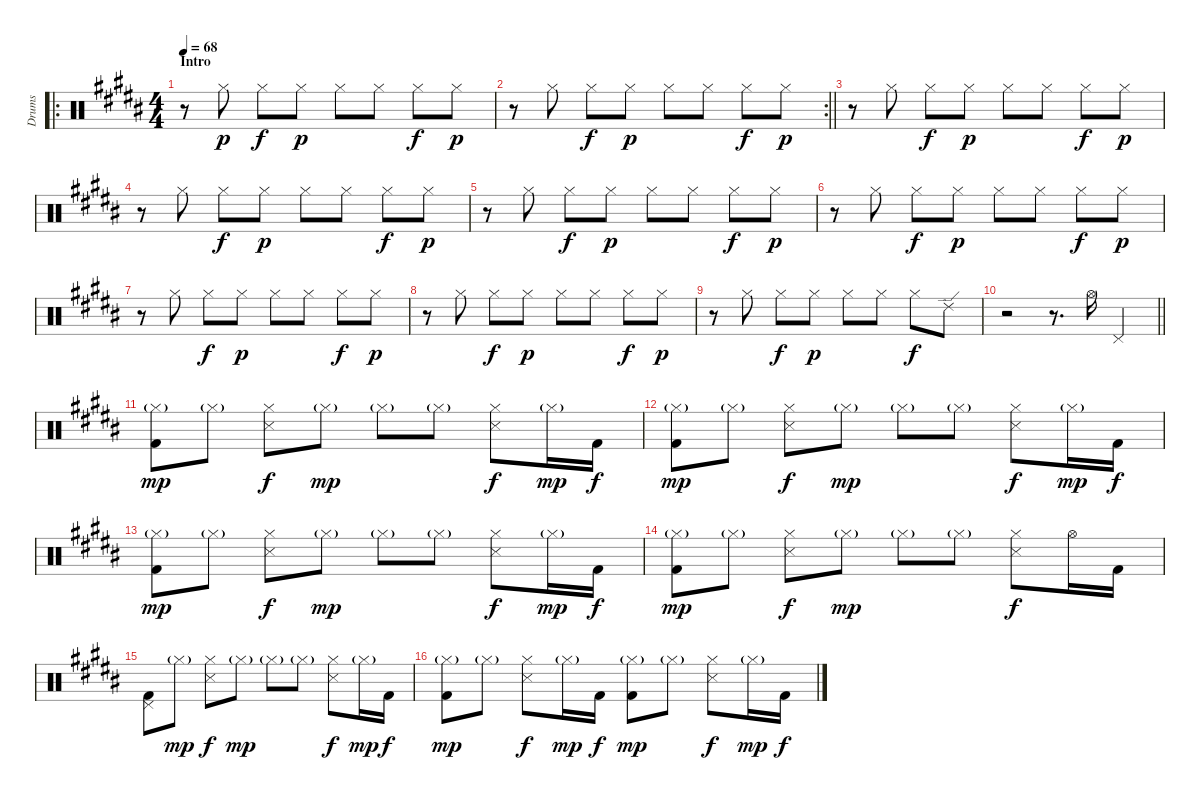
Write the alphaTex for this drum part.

\track ("Drums" "Drums") {instrument percussion}
\staff {score}
\articulation defaults
\ro
\ts (4 4)
\section ("" "Intro")
\tempo 68
\clef neutral
\ks g#minor
r.8{dy p} "Hi-Hat (closed)".8 "Hi-Hat (closed)".8{dy f} "Hi-Hat (closed)".8{dy p} "Hi-Hat (closed)".8 "Hi-Hat (closed)".8 "Hi-Hat (closed)".8{dy f} "Hi-Hat (closed)".8{dy p} |
\rc 2
\barLineRight lightlight
r.8 "Hi-Hat (closed)".8 "Hi-Hat (closed)".8{dy f} "Hi-Hat (closed)".8{dy p} "Hi-Hat (closed)".8 "Hi-Hat (closed)".8 "Hi-Hat (closed)".8{dy f} "Hi-Hat (closed)".8{dy p} |
\section ("" "")
r.8 "Hi-Hat (closed)".8 "Hi-Hat (closed)".8{dy f} "Hi-Hat (closed)".8{dy p} "Hi-Hat (closed)".8 "Hi-Hat (closed)".8 "Hi-Hat (closed)".8{dy f} "Hi-Hat (closed)".8{dy p} |
r.8 "Hi-Hat (closed)".8 "Hi-Hat (closed)".8{dy f} "Hi-Hat (closed)".8{dy p} "Hi-Hat (closed)".8 "Hi-Hat (closed)".8 "Hi-Hat (closed)".8{dy f} "Hi-Hat (closed)".8{dy p} |
r.8 "Hi-Hat (closed)".8 "Hi-Hat (closed)".8{dy f} "Hi-Hat (closed)".8{dy p} "Hi-Hat (closed)".8 "Hi-Hat (closed)".8 "Hi-Hat (closed)".8{dy f} "Hi-Hat (closed)".8{dy p} |
r.8 "Hi-Hat (closed)".8 "Hi-Hat (closed)".8{dy f} "Hi-Hat (closed)".8{dy p} "Hi-Hat (closed)".8 "Hi-Hat (closed)".8 "Hi-Hat (closed)".8{dy f} "Hi-Hat (closed)".8{dy p} |
r.8 "Hi-Hat (closed)".8 "Hi-Hat (closed)".8{dy f} "Hi-Hat (closed)".8{dy p} "Hi-Hat (closed)".8 "Hi-Hat (closed)".8 "Hi-Hat (closed)".8{dy f} "Hi-Hat (closed)".8{dy p} |
r.8 "Hi-Hat (closed)".8 "Hi-Hat (closed)".8{dy f} "Hi-Hat (closed)".8{dy p} "Hi-Hat (closed)".8 "Hi-Hat (closed)".8 "Hi-Hat (closed)".8{dy f} "Hi-Hat (closed)".8{dy p} |
r.8 "Hi-Hat (closed)".8 "Hi-Hat (closed)".8{dy f} "Hi-Hat (closed)".8{dy p} "Hi-Hat (closed)".8 "Hi-Hat (closed)".8 "Hi-Hat (closed)".8{dy f} "Ride (edge) 2".8 |
\barLineRight lightlight
r.2 r.8{d} "Hi-Hat (open)".16 "Pedal Hi-Hat (hit)".4 |
\section ("" "")
("Hi-Hat (closed)"{g} "Kick (hit) 2").8{dy mp} "Hi-Hat (closed)"{g}.8 ("Hi-Hat (closed)" "Metronome (hit)").8{dy f} "Hi-Hat (closed)"{g}.8{dy mp} "Hi-Hat (closed)"{g}.8 "Hi-Hat (closed)"{g}.8 ("Hi-Hat (closed)" "Metronome (hit)").8{dy f} "Hi-Hat (closed)"{g}.16{dy mp} "Kick (hit) 2".16{dy f} |
("Hi-Hat (closed)"{g} "Kick (hit) 2").8{dy mp} "Hi-Hat (closed)"{g}.8 ("Hi-Hat (closed)" "Metronome (hit)").8{dy f} "Hi-Hat (closed)"{g}.8{dy mp} "Hi-Hat (closed)"{g}.8 "Hi-Hat (closed)"{g}.8 ("Hi-Hat (closed)" "Metronome (hit)").8{dy f} "Hi-Hat (closed)"{g}.16{dy mp} "Kick (hit) 2".16{dy f} |
("Hi-Hat (closed)"{g} "Kick (hit) 2").8{dy mp} "Hi-Hat (closed)"{g}.8 ("Hi-Hat (closed)" "Metronome (hit)").8{dy f} "Hi-Hat (closed)"{g}.8{dy mp} "Hi-Hat (closed)"{g}.8 "Hi-Hat (closed)"{g}.8 ("Hi-Hat (closed)" "Metronome (hit)").8{dy f} "Hi-Hat (closed)"{g}.16{dy mp} "Kick (hit) 2".16{dy f} |
("Hi-Hat (closed)"{g} "Kick (hit) 2").8{dy mp} "Hi-Hat (closed)"{g}.8 ("Hi-Hat (closed)" "Metronome (hit)").8{dy f} "Hi-Hat (closed)"{g}.8{dy mp} "Hi-Hat (closed)"{g}.8 "Hi-Hat (closed)"{g}.8 ("Hi-Hat (closed)" "Metronome (hit)").8{dy f} "Hi-Hat (open)".16 "Kick (hit) 2".16 |
("Pedal Hi-Hat (hit)" "Kick (hit) 2").8 "Hi-Hat (closed)"{g}.8{dy mp} ("Hi-Hat (closed)" "Metronome (hit)").8{dy f} "Hi-Hat (closed)"{g}.8{dy mp} "Hi-Hat (closed)"{g}.8 "Hi-Hat (closed)"{g}.8 ("Hi-Hat (closed)" "Metronome (hit)").8{dy f} "Hi-Hat (closed)"{g}.16{dy mp} "Kick (hit) 2".16{dy f} |
("Hi-Hat (closed)"{g} "Kick (hit) 2").8{dy mp} "Hi-Hat (closed)"{g}.8 ("Hi-Hat (closed)" "Metronome (hit)").8{dy f} "Hi-Hat (closed)"{g}.16{dy mp} "Kick (hit) 2".16{dy f} ("Hi-Hat (closed)"{g} "Kick (hit) 2").8{dy mp} "Hi-Hat (closed)"{g}.8 ("Hi-Hat (closed)" "Metronome (hit)").8{dy f} "Hi-Hat (closed)"{g}.16{dy mp} "Kick (hit) 2".16{dy f}
